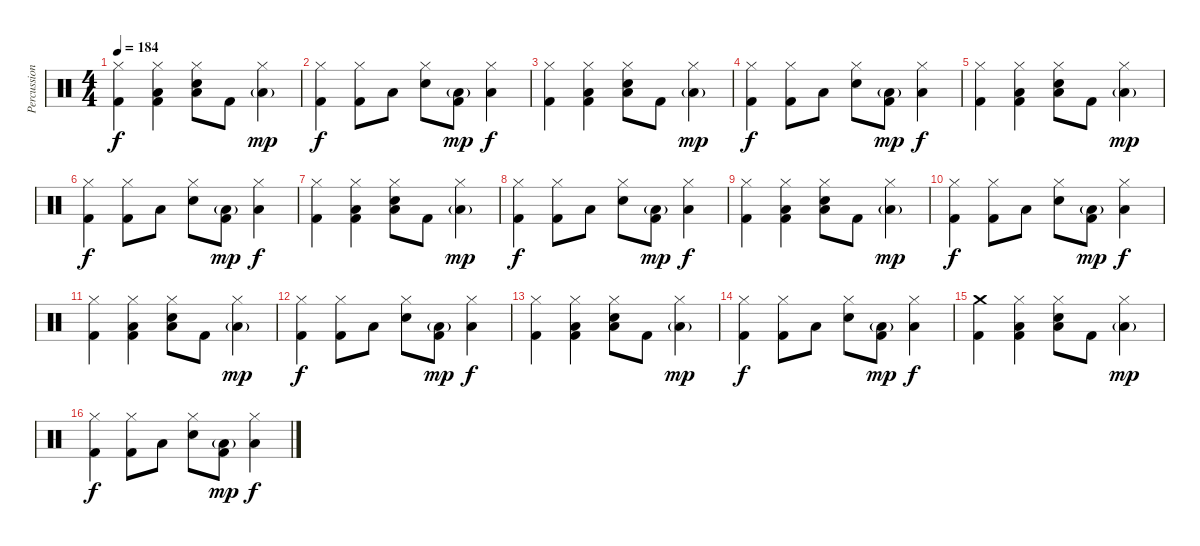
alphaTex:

\track ("Percussions" "Percussion") {instrument percussion}
\staff {score}
\articulation defaults
\ts (4 4)
\tempo 184
\clef neutral
\ks c
("Hi-Hat (closed)" "Kick (hit) 2").4{dy f} ("Hi-Hat (closed)" "Low Floor Tom (hit)" "Kick (hit) 2").4 ("Hi-Hat (closed)" "Low Floor Tom (hit)" "Electric Snare (hit)").8 "Kick (hit) 2".8 ("Hi-Hat (closed)" "Low Floor Tom (hit)"{g}).4{dy mp} |
("Hi-Hat (closed)" "Kick (hit) 2").4{dy f} ("Hi-Hat (closed)" "Kick (hit) 2").8 "Low Floor Tom (hit)".8 ("Hi-Hat (closed)" "Electric Snare (hit)").8 ("Low Floor Tom (hit)"{g} "Kick (hit) 2").8{dy mp} ("Hi-Hat (closed)" "Low Floor Tom (hit)").4{dy f} |
("Hi-Hat (closed)" "Kick (hit) 2").4 ("Hi-Hat (closed)" "Low Floor Tom (hit)" "Kick (hit) 2").4 ("Hi-Hat (closed)" "Low Floor Tom (hit)" "Electric Snare (hit)").8 "Kick (hit) 2".8 ("Hi-Hat (closed)" "Low Floor Tom (hit)"{g}).4{dy mp} |
("Hi-Hat (closed)" "Kick (hit) 2").4{dy f} ("Hi-Hat (closed)" "Kick (hit) 2").8 "Low Floor Tom (hit)".8 ("Hi-Hat (closed)" "Electric Snare (hit)").8 ("Low Floor Tom (hit)"{g} "Kick (hit) 2").8{dy mp} ("Hi-Hat (closed)" "Low Floor Tom (hit)").4{dy f} |
("Hi-Hat (closed)" "Kick (hit) 2").4 ("Hi-Hat (closed)" "Low Floor Tom (hit)" "Kick (hit) 2").4 ("Hi-Hat (closed)" "Low Floor Tom (hit)" "Electric Snare (hit)").8 "Kick (hit) 2".8 ("Hi-Hat (closed)" "Low Floor Tom (hit)"{g}).4{dy mp} |
("Hi-Hat (closed)" "Kick (hit) 2").4{dy f} ("Hi-Hat (closed)" "Kick (hit) 2").8 "Low Floor Tom (hit)".8 ("Hi-Hat (closed)" "Electric Snare (hit)").8 ("Low Floor Tom (hit)"{g} "Kick (hit) 2").8{dy mp} ("Hi-Hat (closed)" "Low Floor Tom (hit)").4{dy f} |
("Hi-Hat (closed)" "Kick (hit) 2").4 ("Hi-Hat (closed)" "Low Floor Tom (hit)" "Kick (hit) 2").4 ("Hi-Hat (closed)" "Low Floor Tom (hit)" "Electric Snare (hit)").8 "Kick (hit) 2".8 ("Hi-Hat (closed)" "Low Floor Tom (hit)"{g}).4{dy mp} |
("Hi-Hat (closed)" "Kick (hit) 2").4{dy f} ("Hi-Hat (closed)" "Kick (hit) 2").8 "Low Floor Tom (hit)".8 ("Hi-Hat (closed)" "Electric Snare (hit)").8 ("Low Floor Tom (hit)"{g} "Kick (hit) 2").8{dy mp} ("Hi-Hat (closed)" "Low Floor Tom (hit)").4{dy f} |
("Hi-Hat (closed)" "Kick (hit) 2").4 ("Hi-Hat (closed)" "Low Floor Tom (hit)" "Kick (hit) 2").4 ("Hi-Hat (closed)" "Low Floor Tom (hit)" "Electric Snare (hit)").8 "Kick (hit) 2".8 ("Hi-Hat (closed)" "Low Floor Tom (hit)"{g}).4{dy mp} |
("Hi-Hat (closed)" "Kick (hit) 2").4{dy f} ("Hi-Hat (closed)" "Kick (hit) 2").8 "Low Floor Tom (hit)".8 ("Hi-Hat (closed)" "Electric Snare (hit)").8 ("Low Floor Tom (hit)"{g} "Kick (hit) 2").8{dy mp} ("Hi-Hat (closed)" "Low Floor Tom (hit)").4{dy f} |
("Hi-Hat (closed)" "Kick (hit) 2").4 ("Hi-Hat (closed)" "Low Floor Tom (hit)" "Kick (hit) 2").4 ("Hi-Hat (closed)" "Low Floor Tom (hit)" "Electric Snare (hit)").8 "Kick (hit) 2".8 ("Hi-Hat (closed)" "Low Floor Tom (hit)"{g}).4{dy mp} |
("Hi-Hat (closed)" "Kick (hit) 2").4{dy f} ("Hi-Hat (closed)" "Kick (hit) 2").8 "Low Floor Tom (hit)".8 ("Hi-Hat (closed)" "Electric Snare (hit)").8 ("Low Floor Tom (hit)"{g} "Kick (hit) 2").8{dy mp} ("Hi-Hat (closed)" "Low Floor Tom (hit)").4{dy f} |
("Hi-Hat (closed)" "Kick (hit) 2").4 ("Hi-Hat (closed)" "Low Floor Tom (hit)" "Kick (hit) 2").4 ("Hi-Hat (closed)" "Low Floor Tom (hit)" "Electric Snare (hit)").8 "Kick (hit) 2".8 ("Hi-Hat (closed)" "Low Floor Tom (hit)"{g}).4{dy mp} |
("Hi-Hat (closed)" "Kick (hit) 2").4{dy f} ("Hi-Hat (closed)" "Kick (hit) 2").8 "Low Floor Tom (hit)".8 ("Hi-Hat (closed)" "Electric Snare (hit)").8 ("Low Floor Tom (hit)"{g} "Kick (hit) 2").8{dy mp} ("Hi-Hat (closed)" "Low Floor Tom (hit)").4{dy f} |
("Crash medium (hit)" "Kick (hit) 2").4 ("Hi-Hat (closed)" "Low Floor Tom (hit)" "Kick (hit) 2").4 ("Hi-Hat (closed)" "Low Floor Tom (hit)" "Electric Snare (hit)").8 "Kick (hit) 2".8 ("Hi-Hat (closed)" "Low Floor Tom (hit)"{g}).4{dy mp} |
("Hi-Hat (closed)" "Kick (hit) 2").4{dy f} ("Hi-Hat (closed)" "Kick (hit) 2").8 "Low Floor Tom (hit)".8 ("Hi-Hat (closed)" "Electric Snare (hit)").8 ("Low Floor Tom (hit)"{g} "Kick (hit) 2").8{dy mp} ("Hi-Hat (closed)" "Low Floor Tom (hit)").4{dy f}
